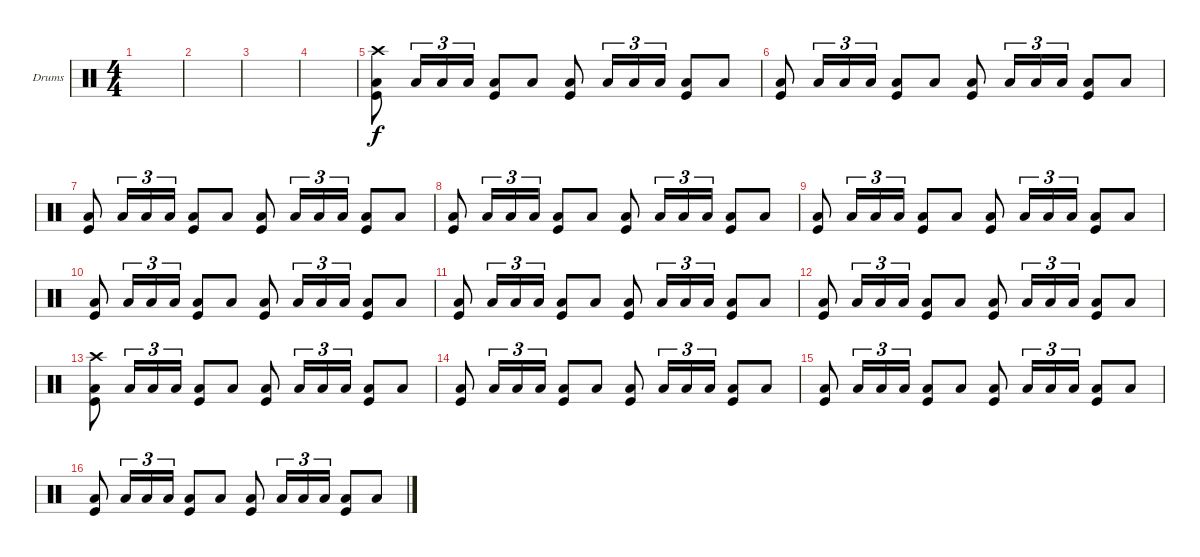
\defaultSystemsLayout 4
\bracketExtendMode groupsimilarinstruments
\firstSystemTrackNameOrientation horizontal
\otherSystemsTrackNameOrientation horizontal
\track ("Drumkit" "Drums") {instrument percussion}
\staff {score}
\articulation defaults
\ts (4 4)
\tempo (69 hide)
\clef neutral
\scale
0.474178
\ks c
|
\scale
0.262911 |
\scale
0.262911 |
\scale
0.333333 |
\scale
0.333333 ("Kick (hit)" "Low Tom (hit)" "Crash high (hit)").8 "Low Tom (hit)".16{tu (3 2)} "Low Tom (hit)".16{tu (3 2)} "Low Tom (hit)".16{tu (3 2)} ("Low Tom (hit)" "Kick (hit)").8 "Low Tom (hit)".8 ("Kick (hit)" "Low Tom (hit)").8 "Low Tom (hit)".16{tu (3 2)} "Low Tom (hit)".16{tu (3 2)} "Low Tom (hit)".16{tu (3 2)} ("Low Tom (hit)" "Kick (hit)").8 "Low Tom (hit)".8 |
\scale
0.333333 ("Kick (hit)" "Low Tom (hit)").8 "Low Tom (hit)".16{tu (3 2)} "Low Tom (hit)".16{tu (3 2)} "Low Tom (hit)".16{tu (3 2)} ("Low Tom (hit)" "Kick (hit)").8 "Low Tom (hit)".8 ("Kick (hit)" "Low Tom (hit)").8 "Low Tom (hit)".16{tu (3 2)} "Low Tom (hit)".16{tu (3 2)} "Low Tom (hit)".16{tu (3 2)} ("Low Tom (hit)" "Kick (hit)").8 "Low Tom (hit)".8 |
\scale
0.333333 ("Kick (hit)" "Low Tom (hit)").8 "Low Tom (hit)".16{tu (3 2)} "Low Tom (hit)".16{tu (3 2)} "Low Tom (hit)".16{tu (3 2)} ("Low Tom (hit)" "Kick (hit)").8 "Low Tom (hit)".8 ("Kick (hit)" "Low Tom (hit)").8 "Low Tom (hit)".16{tu (3 2)} "Low Tom (hit)".16{tu (3 2)} "Low Tom (hit)".16{tu (3 2)} ("Low Tom (hit)" "Kick (hit)").8 "Low Tom (hit)".8 |
\scale
0.333333 ("Kick (hit)" "Low Tom (hit)").8 "Low Tom (hit)".16{tu (3 2)} "Low Tom (hit)".16{tu (3 2)} "Low Tom (hit)".16{tu (3 2)} ("Low Tom (hit)" "Kick (hit)").8 "Low Tom (hit)".8 ("Kick (hit)" "Low Tom (hit)").8 "Low Tom (hit)".16{tu (3 2)} "Low Tom (hit)".16{tu (3 2)} "Low Tom (hit)".16{tu (3 2)} ("Low Tom (hit)" "Kick (hit)").8 "Low Tom (hit)".8 |
\scale
0.333333 ("Kick (hit)" "Low Tom (hit)").8 "Low Tom (hit)".16{tu (3 2)} "Low Tom (hit)".16{tu (3 2)} "Low Tom (hit)".16{tu (3 2)} ("Low Tom (hit)" "Kick (hit)").8 "Low Tom (hit)".8 ("Kick (hit)" "Low Tom (hit)").8 "Low Tom (hit)".16{tu (3 2)} "Low Tom (hit)".16{tu (3 2)} "Low Tom (hit)".16{tu (3 2)} ("Low Tom (hit)" "Kick (hit)").8 "Low Tom (hit)".8 |
("Kick (hit)" "Low Tom (hit)").8 "Low Tom (hit)".16{tu (3 2)} "Low Tom (hit)".16{tu (3 2)} "Low Tom (hit)".16{tu (3 2)} ("Low Tom (hit)" "Kick (hit)").8 "Low Tom (hit)".8 ("Kick (hit)" "Low Tom (hit)").8 "Low Tom (hit)".16{tu (3 2)} "Low Tom (hit)".16{tu (3 2)} "Low Tom (hit)".16{tu (3 2)} ("Low Tom (hit)" "Kick (hit)").8 "Low Tom (hit)".8 |
("Kick (hit)" "Low Tom (hit)").8 "Low Tom (hit)".16{tu (3 2)} "Low Tom (hit)".16{tu (3 2)} "Low Tom (hit)".16{tu (3 2)} ("Low Tom (hit)" "Kick (hit)").8 "Low Tom (hit)".8 ("Kick (hit)" "Low Tom (hit)").8 "Low Tom (hit)".16{tu (3 2)} "Low Tom (hit)".16{tu (3 2)} "Low Tom (hit)".16{tu (3 2)} ("Low Tom (hit)" "Kick (hit)").8 "Low Tom (hit)".8 |
("Kick (hit)" "Low Tom (hit)").8 "Low Tom (hit)".16{tu (3 2)} "Low Tom (hit)".16{tu (3 2)} "Low Tom (hit)".16{tu (3 2)} ("Low Tom (hit)" "Kick (hit)").8 "Low Tom (hit)".8 ("Kick (hit)" "Low Tom (hit)").8 "Low Tom (hit)".16{tu (3 2)} "Low Tom (hit)".16{tu (3 2)} "Low Tom (hit)".16{tu (3 2)} ("Low Tom (hit)" "Kick (hit)").8 "Low Tom (hit)".8 |
("Kick (hit)" "Low Tom (hit)" "Crash high (hit)").8 "Low Tom (hit)".16{tu (3 2)} "Low Tom (hit)".16{tu (3 2)} "Low Tom (hit)".16{tu (3 2)} ("Low Tom (hit)" "Kick (hit)").8 "Low Tom (hit)".8 ("Kick (hit)" "Low Tom (hit)").8 "Low Tom (hit)".16{tu (3 2)} "Low Tom (hit)".16{tu (3 2)} "Low Tom (hit)".16{tu (3 2)} ("Low Tom (hit)" "Kick (hit)").8 "Low Tom (hit)".8 |
("Kick (hit)" "Low Tom (hit)").8 "Low Tom (hit)".16{tu (3 2)} "Low Tom (hit)".16{tu (3 2)} "Low Tom (hit)".16{tu (3 2)} ("Low Tom (hit)" "Kick (hit)").8 "Low Tom (hit)".8 ("Kick (hit)" "Low Tom (hit)").8 "Low Tom (hit)".16{tu (3 2)} "Low Tom (hit)".16{tu (3 2)} "Low Tom (hit)".16{tu (3 2)} ("Low Tom (hit)" "Kick (hit)").8 "Low Tom (hit)".8 |
("Kick (hit)" "Low Tom (hit)").8 "Low Tom (hit)".16{tu (3 2)} "Low Tom (hit)".16{tu (3 2)} "Low Tom (hit)".16{tu (3 2)} ("Low Tom (hit)" "Kick (hit)").8 "Low Tom (hit)".8 ("Kick (hit)" "Low Tom (hit)").8 "Low Tom (hit)".16{tu (3 2)} "Low Tom (hit)".16{tu (3 2)} "Low Tom (hit)".16{tu (3 2)} ("Low Tom (hit)" "Kick (hit)").8 "Low Tom (hit)".8 |
("Kick (hit)" "Low Tom (hit)").8 "Low Tom (hit)".16{tu (3 2)} "Low Tom (hit)".16{tu (3 2)} "Low Tom (hit)".16{tu (3 2)} ("Low Tom (hit)" "Kick (hit)").8 "Low Tom (hit)".8 ("Kick (hit)" "Low Tom (hit)").8 "Low Tom (hit)".16{tu (3 2)} "Low Tom (hit)".16{tu (3 2)} "Low Tom (hit)".16{tu (3 2)} ("Low Tom (hit)" "Kick (hit)").8 "Low Tom (hit)".8
